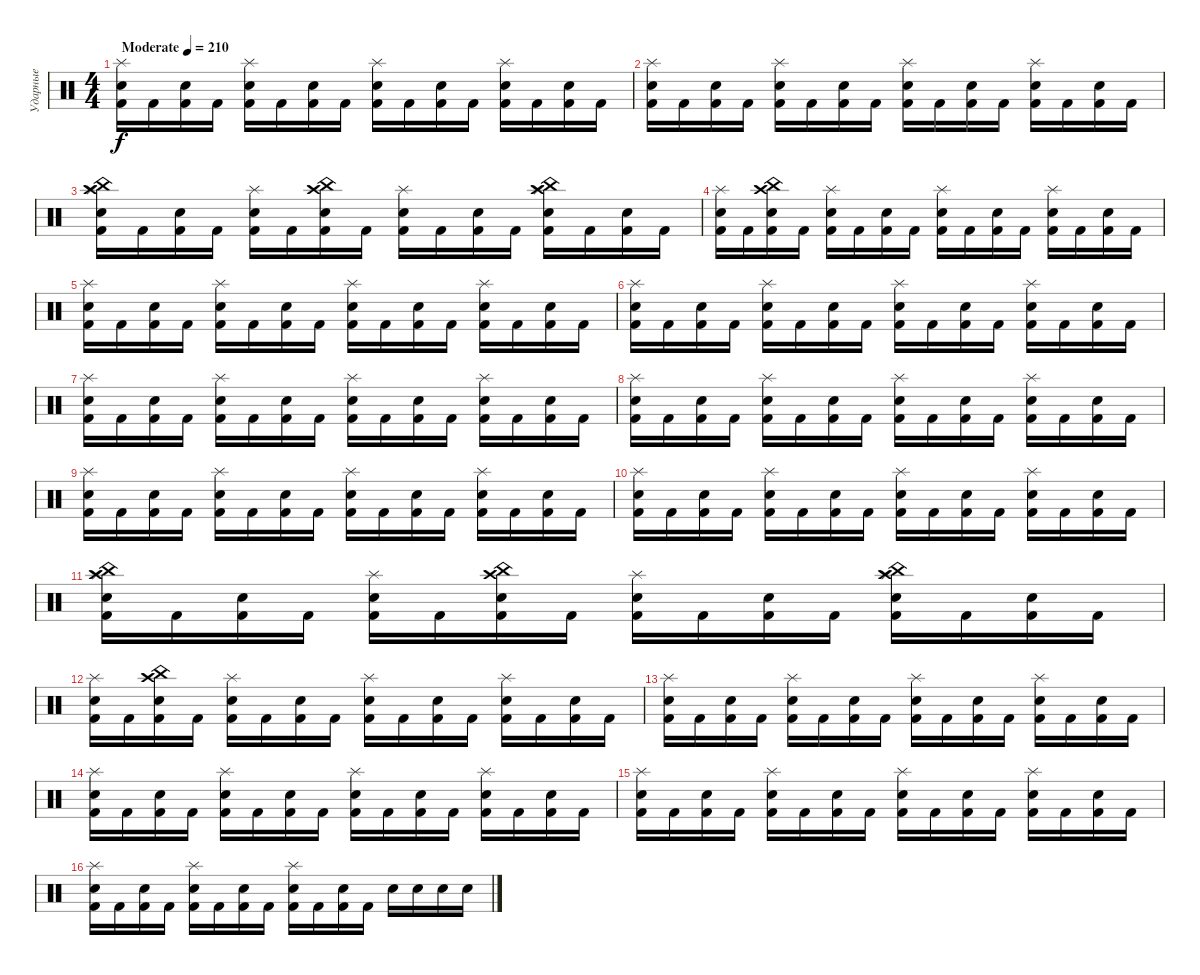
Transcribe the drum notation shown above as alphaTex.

\track ("Ударные" "Ударные") {instrument percussion}
\staff {score}
\articulation defaults
\ts (4 4)
\tempo (210 "Moderate")
\clef neutral
\ks c
("Kick (hit) 2" "Electric Snare (hit)" "Splash (hit)").16{dy f} "Kick (hit) 2".16 ("Kick (hit) 2" "Electric Snare (hit)").16 "Kick (hit) 2".16 ("Kick (hit) 2" "Electric Snare (hit)" "Splash (hit)").16 "Kick (hit) 2".16 ("Kick (hit) 2" "Electric Snare (hit)").16 "Kick (hit) 2".16 ("Kick (hit) 2" "Electric Snare (hit)" "Splash (hit)").16 "Kick (hit) 2".16 ("Kick (hit) 2" "Electric Snare (hit)").16 "Kick (hit) 2".16 ("Kick (hit) 2" "Electric Snare (hit)" "Splash (hit)").16 "Kick (hit) 2".16 ("Kick (hit) 2" "Electric Snare (hit)").16 "Kick (hit) 2".16 |
("Kick (hit) 2" "Electric Snare (hit)" "Splash (hit)").16 "Kick (hit) 2".16 ("Kick (hit) 2" "Electric Snare (hit)").16 "Kick (hit) 2".16 ("Kick (hit) 2" "Electric Snare (hit)" "Splash (hit)").16 "Kick (hit) 2".16 ("Kick (hit) 2" "Electric Snare (hit)").16 "Kick (hit) 2".16 ("Kick (hit) 2" "Electric Snare (hit)" "Splash (hit)").16 "Kick (hit) 2".16 ("Kick (hit) 2" "Electric Snare (hit)").16 "Kick (hit) 2".16 ("Kick (hit) 2" "Electric Snare (hit)" "Splash (hit)").16 "Kick (hit) 2".16 ("Kick (hit) 2" "Electric Snare (hit)").16 "Kick (hit) 2".16 |
("Kick (hit) 2" "Electric Snare (hit)" "Splash (hit)" "Crash high (hit)" "China (hit)").16 "Kick (hit) 2".16 ("Kick (hit) 2" "Electric Snare (hit)").16 "Kick (hit) 2".16 ("Kick (hit) 2" "Electric Snare (hit)" "Splash (hit)").16 "Kick (hit) 2".16 ("Kick (hit) 2" "Electric Snare (hit)" "China (hit)" "Crash high (hit)").16 "Kick (hit) 2".16 ("Kick (hit) 2" "Electric Snare (hit)" "Splash (hit)").16 "Kick (hit) 2".16 ("Kick (hit) 2" "Electric Snare (hit)").16 "Kick (hit) 2".16 ("Kick (hit) 2" "Electric Snare (hit)" "Splash (hit)" "Crash high (hit)" "China (hit)").16 "Kick (hit) 2".16 ("Kick (hit) 2" "Electric Snare (hit)").16 "Kick (hit) 2".16 |
("Kick (hit) 2" "Electric Snare (hit)" "Splash (hit)").16 "Kick (hit) 2".16 ("Kick (hit) 2" "Electric Snare (hit)" "China (hit)" "Crash high (hit)").16 "Kick (hit) 2".16 ("Kick (hit) 2" "Electric Snare (hit)" "Splash (hit)").16 "Kick (hit) 2".16 ("Kick (hit) 2" "Electric Snare (hit)").16 "Kick (hit) 2".16 ("Kick (hit) 2" "Electric Snare (hit)" "Splash (hit)").16 "Kick (hit) 2".16 ("Kick (hit) 2" "Electric Snare (hit)").16 "Kick (hit) 2".16 ("Kick (hit) 2" "Electric Snare (hit)" "Splash (hit)").16 "Kick (hit) 2".16 ("Kick (hit) 2" "Electric Snare (hit)").16 "Kick (hit) 2".16 |
("Kick (hit) 2" "Electric Snare (hit)" "Splash (hit)").16 "Kick (hit) 2".16 ("Kick (hit) 2" "Electric Snare (hit)").16 "Kick (hit) 2".16 ("Kick (hit) 2" "Electric Snare (hit)" "Splash (hit)").16 "Kick (hit) 2".16 ("Kick (hit) 2" "Electric Snare (hit)").16 "Kick (hit) 2".16 ("Kick (hit) 2" "Electric Snare (hit)" "Splash (hit)").16 "Kick (hit) 2".16 ("Kick (hit) 2" "Electric Snare (hit)").16 "Kick (hit) 2".16 ("Kick (hit) 2" "Electric Snare (hit)" "Splash (hit)").16 "Kick (hit) 2".16 ("Kick (hit) 2" "Electric Snare (hit)").16 "Kick (hit) 2".16 |
("Kick (hit) 2" "Electric Snare (hit)" "Splash (hit)").16 "Kick (hit) 2".16 ("Kick (hit) 2" "Electric Snare (hit)").16 "Kick (hit) 2".16 ("Kick (hit) 2" "Electric Snare (hit)" "Splash (hit)").16 "Kick (hit) 2".16 ("Kick (hit) 2" "Electric Snare (hit)").16 "Kick (hit) 2".16 ("Kick (hit) 2" "Electric Snare (hit)" "Splash (hit)").16 "Kick (hit) 2".16 ("Kick (hit) 2" "Electric Snare (hit)").16 "Kick (hit) 2".16 ("Kick (hit) 2" "Electric Snare (hit)" "Splash (hit)").16 "Kick (hit) 2".16 ("Kick (hit) 2" "Electric Snare (hit)").16 "Kick (hit) 2".16 |
("Kick (hit) 2" "Electric Snare (hit)" "Splash (hit)").16 "Kick (hit) 2".16 ("Kick (hit) 2" "Electric Snare (hit)").16 "Kick (hit) 2".16 ("Kick (hit) 2" "Electric Snare (hit)" "Splash (hit)").16 "Kick (hit) 2".16 ("Kick (hit) 2" "Electric Snare (hit)").16 "Kick (hit) 2".16 ("Kick (hit) 2" "Electric Snare (hit)" "Splash (hit)").16 "Kick (hit) 2".16 ("Kick (hit) 2" "Electric Snare (hit)").16 "Kick (hit) 2".16 ("Kick (hit) 2" "Electric Snare (hit)" "Splash (hit)").16 "Kick (hit) 2".16 ("Kick (hit) 2" "Electric Snare (hit)").16 "Kick (hit) 2".16 |
("Kick (hit) 2" "Electric Snare (hit)" "Splash (hit)").16 "Kick (hit) 2".16 ("Kick (hit) 2" "Electric Snare (hit)").16 "Kick (hit) 2".16 ("Kick (hit) 2" "Electric Snare (hit)" "Splash (hit)").16 "Kick (hit) 2".16 ("Kick (hit) 2" "Electric Snare (hit)").16 "Kick (hit) 2".16 ("Kick (hit) 2" "Electric Snare (hit)" "Splash (hit)").16 "Kick (hit) 2".16 ("Kick (hit) 2" "Electric Snare (hit)").16 "Kick (hit) 2".16 ("Kick (hit) 2" "Electric Snare (hit)" "Splash (hit)").16 "Kick (hit) 2".16 ("Kick (hit) 2" "Electric Snare (hit)").16 "Kick (hit) 2".16 |
("Kick (hit) 2" "Electric Snare (hit)" "Splash (hit)").16 "Kick (hit) 2".16 ("Kick (hit) 2" "Electric Snare (hit)").16 "Kick (hit) 2".16 ("Kick (hit) 2" "Electric Snare (hit)" "Splash (hit)").16 "Kick (hit) 2".16 ("Kick (hit) 2" "Electric Snare (hit)").16 "Kick (hit) 2".16 ("Kick (hit) 2" "Electric Snare (hit)" "Splash (hit)").16 "Kick (hit) 2".16 ("Kick (hit) 2" "Electric Snare (hit)").16 "Kick (hit) 2".16 ("Kick (hit) 2" "Electric Snare (hit)" "Splash (hit)").16 "Kick (hit) 2".16 ("Kick (hit) 2" "Electric Snare (hit)").16 "Kick (hit) 2".16 |
("Kick (hit) 2" "Electric Snare (hit)" "Splash (hit)").16 "Kick (hit) 2".16 ("Kick (hit) 2" "Electric Snare (hit)").16 "Kick (hit) 2".16 ("Kick (hit) 2" "Electric Snare (hit)" "Splash (hit)").16 "Kick (hit) 2".16 ("Kick (hit) 2" "Electric Snare (hit)").16 "Kick (hit) 2".16 ("Kick (hit) 2" "Electric Snare (hit)" "Splash (hit)").16 "Kick (hit) 2".16 ("Kick (hit) 2" "Electric Snare (hit)").16 "Kick (hit) 2".16 ("Kick (hit) 2" "Electric Snare (hit)" "Splash (hit)").16 "Kick (hit) 2".16 ("Kick (hit) 2" "Electric Snare (hit)").16 "Kick (hit) 2".16 |
("Kick (hit) 2" "Electric Snare (hit)" "Splash (hit)" "Crash high (hit)" "China (hit)").16 "Kick (hit) 2".16 ("Kick (hit) 2" "Electric Snare (hit)").16 "Kick (hit) 2".16 ("Kick (hit) 2" "Electric Snare (hit)" "Splash (hit)").16 "Kick (hit) 2".16 ("Kick (hit) 2" "Electric Snare (hit)" "China (hit)" "Crash high (hit)").16 "Kick (hit) 2".16 ("Kick (hit) 2" "Electric Snare (hit)" "Splash (hit)").16 "Kick (hit) 2".16 ("Kick (hit) 2" "Electric Snare (hit)").16 "Kick (hit) 2".16 ("Kick (hit) 2" "Electric Snare (hit)" "Splash (hit)" "Crash high (hit)" "China (hit)").16 "Kick (hit) 2".16 ("Kick (hit) 2" "Electric Snare (hit)").16 "Kick (hit) 2".16 |
("Kick (hit) 2" "Electric Snare (hit)" "Splash (hit)").16 "Kick (hit) 2".16 ("Kick (hit) 2" "Electric Snare (hit)" "China (hit)" "Crash high (hit)").16 "Kick (hit) 2".16 ("Kick (hit) 2" "Electric Snare (hit)" "Splash (hit)").16 "Kick (hit) 2".16 ("Kick (hit) 2" "Electric Snare (hit)").16 "Kick (hit) 2".16 ("Kick (hit) 2" "Electric Snare (hit)" "Splash (hit)").16 "Kick (hit) 2".16 ("Kick (hit) 2" "Electric Snare (hit)").16 "Kick (hit) 2".16 ("Kick (hit) 2" "Electric Snare (hit)" "Splash (hit)").16 "Kick (hit) 2".16 ("Kick (hit) 2" "Electric Snare (hit)").16 "Kick (hit) 2".16 |
("Kick (hit) 2" "Electric Snare (hit)" "Splash (hit)").16 "Kick (hit) 2".16 ("Kick (hit) 2" "Electric Snare (hit)").16 "Kick (hit) 2".16 ("Kick (hit) 2" "Electric Snare (hit)" "Splash (hit)").16 "Kick (hit) 2".16 ("Kick (hit) 2" "Electric Snare (hit)").16 "Kick (hit) 2".16 ("Kick (hit) 2" "Electric Snare (hit)" "Splash (hit)").16 "Kick (hit) 2".16 ("Kick (hit) 2" "Electric Snare (hit)").16 "Kick (hit) 2".16 ("Kick (hit) 2" "Electric Snare (hit)" "Splash (hit)").16 "Kick (hit) 2".16 ("Kick (hit) 2" "Electric Snare (hit)").16 "Kick (hit) 2".16 |
("Kick (hit) 2" "Electric Snare (hit)" "Splash (hit)").16 "Kick (hit) 2".16 ("Kick (hit) 2" "Electric Snare (hit)").16 "Kick (hit) 2".16 ("Kick (hit) 2" "Electric Snare (hit)" "Splash (hit)").16 "Kick (hit) 2".16 ("Kick (hit) 2" "Electric Snare (hit)").16 "Kick (hit) 2".16 ("Kick (hit) 2" "Electric Snare (hit)" "Splash (hit)").16 "Kick (hit) 2".16 ("Kick (hit) 2" "Electric Snare (hit)").16 "Kick (hit) 2".16 ("Kick (hit) 2" "Electric Snare (hit)" "Splash (hit)").16 "Kick (hit) 2".16 ("Kick (hit) 2" "Electric Snare (hit)").16 "Kick (hit) 2".16 |
("Kick (hit) 2" "Electric Snare (hit)" "Splash (hit)").16 "Kick (hit) 2".16 ("Kick (hit) 2" "Electric Snare (hit)").16 "Kick (hit) 2".16 ("Kick (hit) 2" "Electric Snare (hit)" "Splash (hit)").16 "Kick (hit) 2".16 ("Kick (hit) 2" "Electric Snare (hit)").16 "Kick (hit) 2".16 ("Kick (hit) 2" "Electric Snare (hit)" "Splash (hit)").16 "Kick (hit) 2".16 ("Kick (hit) 2" "Electric Snare (hit)").16 "Kick (hit) 2".16 ("Kick (hit) 2" "Electric Snare (hit)" "Splash (hit)").16 "Kick (hit) 2".16 ("Kick (hit) 2" "Electric Snare (hit)").16 "Kick (hit) 2".16 |
("Kick (hit) 2" "Electric Snare (hit)" "Splash (hit)").16 "Kick (hit) 2".16 ("Kick (hit) 2" "Electric Snare (hit)").16 "Kick (hit) 2".16 ("Kick (hit) 2" "Electric Snare (hit)" "Splash (hit)").16 "Kick (hit) 2".16 ("Kick (hit) 2" "Electric Snare (hit)").16 "Kick (hit) 2".16 ("Kick (hit) 2" "Electric Snare (hit)" "Splash (hit)").16 "Kick (hit) 2".16 ("Kick (hit) 2" "Electric Snare (hit)").16 "Kick (hit) 2".16 "Electric Snare (hit)".16 "Electric Snare (hit)".16 "Electric Snare (hit)".16 "Electric Snare (hit)".16
